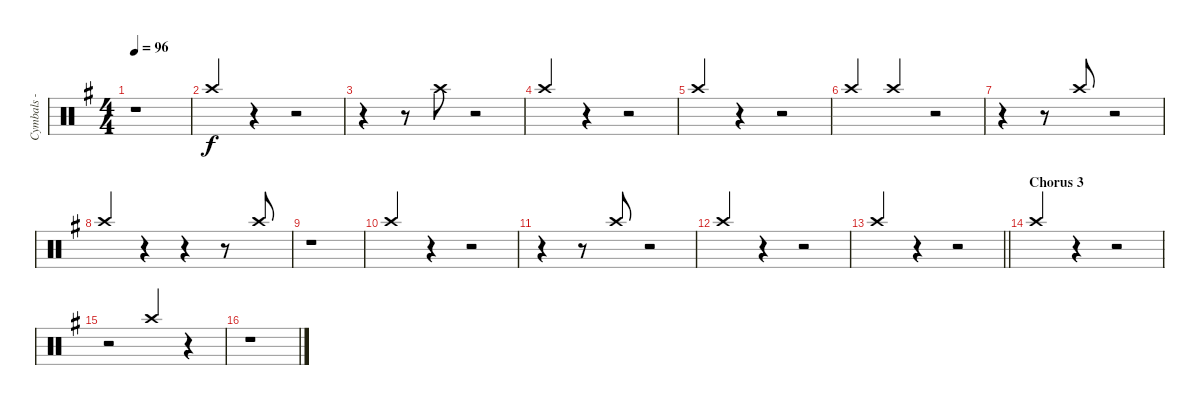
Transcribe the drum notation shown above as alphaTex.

\track ("Cymbals - crash" "Cymbals - ") {instrument percussion}
\staff {score}
\articulation defaults
\ts (4 4)
\tempo 96
\clef neutral
\ks g
r.1{dy f} |
"Crash high (hit)".4{beam Up} r.4 r.2 |
r.4 r.8 "Crash high (hit)".8 r.2 |
"Crash high (hit)".4{beam Up} r.4 r.2 |
"Crash high (hit)".4{beam Up} r.4 r.2 |
"Crash high (hit)".4{beam Up} "Crash high (hit)".4{beam Up} r.2 |
r.4{beam merge} r.8 "Crash high (hit)".8{beam Up} r.2 |
"Crash high (hit)".4{beam Up} r.4 r.4 r.8 "Crash high (hit)".8{beam Up} |
r.1 |
"Crash high (hit)".4{beam Up} r.4 r.2 |
r.4{beam merge} r.8 "Crash high (hit)".8{beam Up} r.2 |
"Crash high (hit)".4{beam Up} r.4 r.2 |
\barLineRight lightlight "Crash high (hit)".4{beam Up}
r.4 r.2 |
\section ("" "Chorus 3")
"Crash high (hit)".4{beam Up} r.4 r.2 |
r.2 "Crash high (hit)".4{beam Up} r.4 |
r.1
